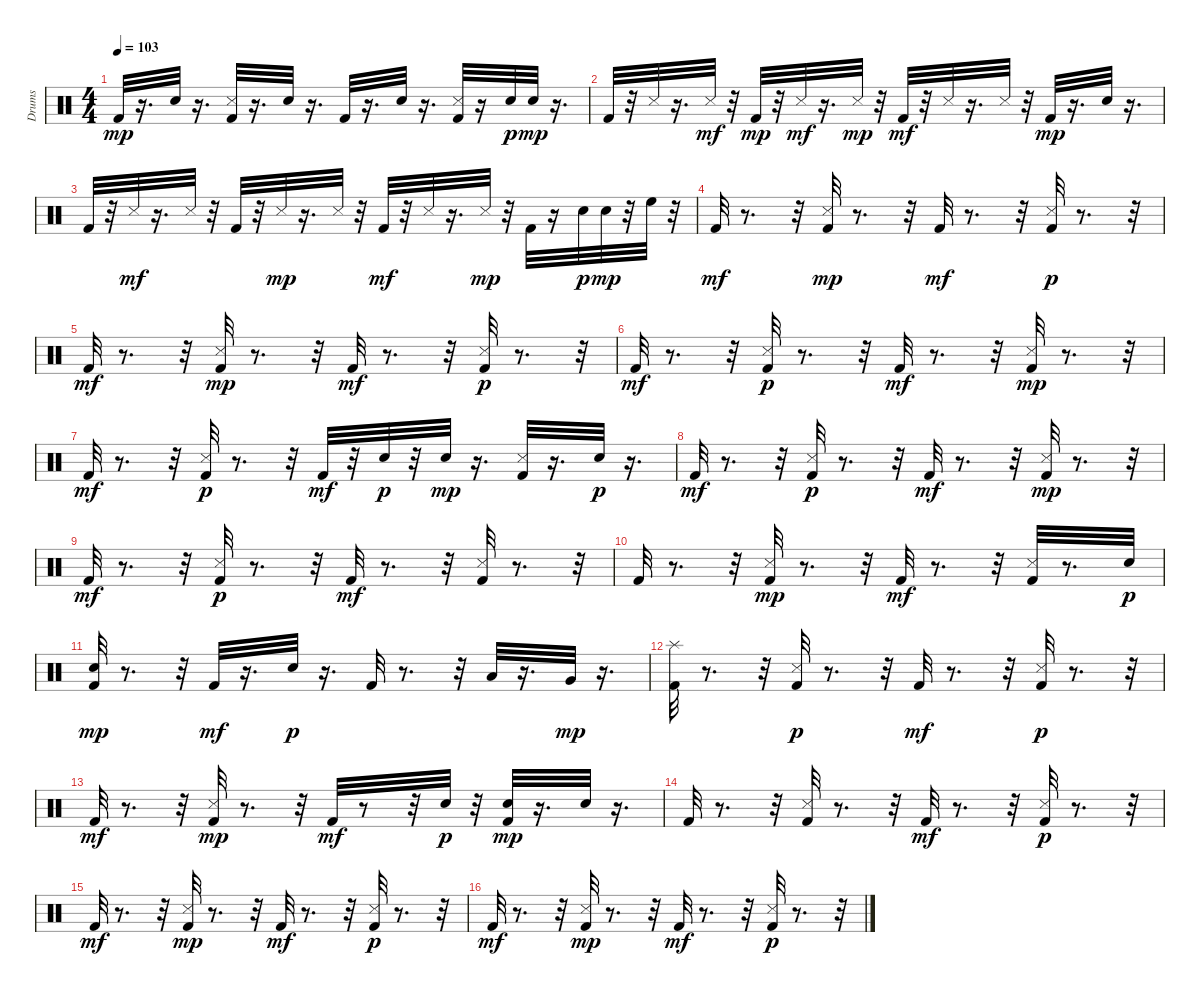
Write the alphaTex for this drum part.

\track ("Drums" "Drums") {instrument percussion}
\staff {score}
\articulation defaults
\ts (4 4)
\tempo 103
\clef neutral
\ks c "Kick (hit) 2".32{dy mp}
r.16{d} "Electric Snare (hit)".32 r.16{d} ("Kick (hit) 2" "Snare (side stick) 3").32 r.16{d} "Electric Snare (hit)".32 r.16{d} "Kick (hit) 2".32 r.16{d} "Electric Snare (hit)".32 r.16{d} ("Kick (hit) 2" "Snare (side stick) 3").32 r.16 "Electric Snare (hit)".32{dy p} "Electric Snare (hit)".32{dy mp} r.16{d} |
"Kick (hit) 2".32 r.32 "Snare (side stick) 3".32 r.16{d} "Snare (side stick) 3".32{dy mf} r.32 "Kick (hit) 2".32{dy mp} r.32 "Snare (side stick) 3".32{dy mf} r.16{d} "Snare (side stick) 3".32{dy mp} r.32 "Kick (hit) 2".32{dy mf} r.32 "Snare (side stick) 3".32 r.16{d} "Snare (side stick) 3".32 r.32 "Kick (hit) 2".32{dy mp} r.16{d} "Electric Snare (hit)".32 r.16{d} |
"Kick (hit) 2".32 r.32 "Snare (side stick) 3".32{dy mf} r.16{d} "Snare (side stick) 3".32 r.32 "Kick (hit) 2".32 r.32 "Snare (side stick) 3".32{dy mp} r.16{d} "Snare (side stick) 3".32 r.32 "Kick (hit) 2".32{dy mf} r.32 "Snare (side stick) 3".32 r.16{d} "Snare (side stick) 3".32{dy mp} r.32 "Kick (hit) 2".32 r.16 "Electric Snare (hit)".32{dy p} "Electric Snare (hit)".32{dy mp} r.32 "High Floor Tom (hit)".32 r.32 |
"Kick (hit) 2".32{dy mf} r.8{d} r.32 ("Kick (hit) 2" "Snare (side stick) 3").32{dy mp} r.8{d} r.32 "Kick (hit) 2".32{dy mf} r.8{d} r.32 ("Kick (hit) 2" "Snare (side stick) 3").32{dy p} r.8{d} r.32 |
"Kick (hit) 2".32{dy mf} r.8{d} r.32 ("Kick (hit) 2" "Snare (side stick) 3").32{dy mp} r.8{d} r.32 "Kick (hit) 2".32{dy mf} r.8{d} r.32 ("Kick (hit) 2" "Snare (side stick) 3").32{dy p} r.8{d} r.32 |
"Kick (hit) 2".32{dy mf} r.8{d} r.32 ("Kick (hit) 2" "Snare (side stick) 3").32{dy p} r.8{d} r.32 "Kick (hit) 2".32{dy mf} r.8{d} r.32 ("Kick (hit) 2" "Snare (side stick) 3").32{dy mp} r.8{d} r.32 |
"Kick (hit) 2".32{dy mf} r.8{d} r.32 ("Kick (hit) 2" "Snare (side stick) 3").32{dy p} r.8{d} r.32 "Kick (hit) 2".32{dy mf} r.32 "Electric Snare (hit)".32{dy p} r.32 "Electric Snare (hit)".32{dy mp} r.16{d} ("Kick (hit) 2" "Snare (side stick) 3").32 r.16{d} "Electric Snare (hit)".32{dy p} r.16{d} |
"Kick (hit) 2".32{dy mf} r.8{d} r.32 ("Kick (hit) 2" "Snare (side stick) 3").32{dy p} r.8{d} r.32 "Kick (hit) 2".32{dy mf} r.8{d} r.32 ("Kick (hit) 2" "Snare (side stick) 3").32{dy mp} r.8{d} r.32 |
"Kick (hit) 2".32{dy mf} r.8{d} r.32 ("Kick (hit) 2" "Snare (side stick) 3").32{dy p} r.8{d} r.32 "Kick (hit) 2".32{dy mf} r.8{d} r.32 ("Kick (hit) 2" "Snare (side stick) 3").32 r.8{d} r.32 |
"Kick (hit) 2".32 r.8{d} r.32 ("Kick (hit) 2" "Snare (side stick) 3").32{dy mp} r.8{d} r.32 "Kick (hit) 2".32{dy mf} r.8{d} r.32 ("Kick (hit) 2" "Snare (side stick) 3").32 r.8{d} "Electric Snare (hit)".32{dy p} |
("Kick (hit) 2" "Electric Snare (hit)").32{dy mp} r.8{d} r.32 "Kick (hit) 2".32{dy mf} r.16{d} "Electric Snare (hit)".32{dy p} r.16{d} "Kick (hit) 2".32 r.8{d} r.32 "Low Tom (hit)".32 r.16{d} "Very Low Tom (hit)".32{dy mp} r.16{d} |
("Kick (hit) 2" "Splash (hit)").32 r.8{d} r.32 ("Kick (hit) 2" "Snare (side stick) 3").32{dy p} r.8{d} r.32 "Kick (hit) 2".32{dy mf} r.8{d} r.32 ("Kick (hit) 2" "Snare (side stick) 3").32{dy p} r.8{d} r.32 |
"Kick (hit) 2".32{dy mf} r.8{d} r.32 ("Kick (hit) 2" "Snare (side stick) 3").32{dy mp} r.8{d} r.32 "Kick (hit) 2".32{dy mf} r.8 r.32 "Electric Snare (hit)".32{dy p} r.32 ("Kick (hit) 2" "Electric Snare (hit)").32{dy mp} r.16{d} "Electric Snare (hit)".32 r.16{d} |
"Kick (hit) 2".32 r.8{d} r.32 ("Kick (hit) 2" "Snare (side stick) 3").32 r.8{d} r.32 "Kick (hit) 2".32{dy mf} r.8{d} r.32 ("Kick (hit) 2" "Snare (side stick) 3").32{dy p} r.8{d} r.32 |
"Kick (hit) 2".32{dy mf} r.8{d} r.32 ("Kick (hit) 2" "Snare (side stick) 3").32{dy mp} r.8{d} r.32 "Kick (hit) 2".32{dy mf} r.8{d} r.32 ("Kick (hit) 2" "Snare (side stick) 3").32{dy p} r.8{d} r.32 |
"Kick (hit) 2".32{dy mf} r.8{d} r.32 ("Kick (hit) 2" "Snare (side stick) 3").32{dy mp} r.8{d} r.32 "Kick (hit) 2".32{dy mf} r.8{d} r.32 ("Kick (hit) 2" "Snare (side stick) 3").32{dy p} r.8{d} r.32
